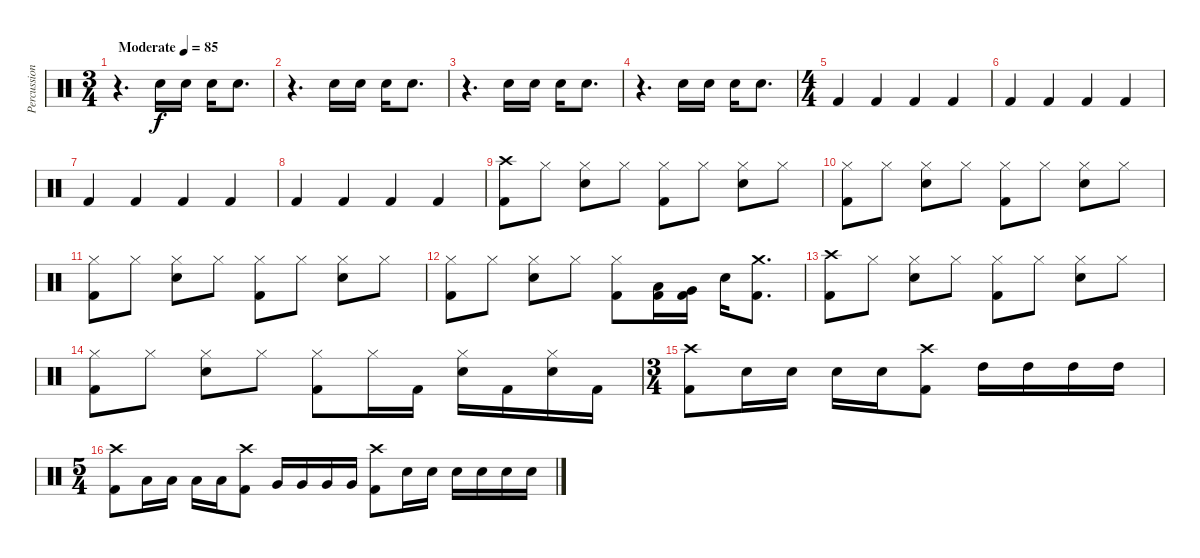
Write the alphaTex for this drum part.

\track ("Percussion" "Percussion") {instrument percussion}
\staff {score}
\articulation defaults
\ts (3 4)
\tempo (85 "Moderate")
\clef neutral
\ks c
r.4{d dy f} "Electric Snare (hit)".16 "Electric Snare (hit)".16 "Electric Snare (hit)".16 "Electric Snare (hit)".8{d} |
r.4{d} "Electric Snare (hit)".16 "Electric Snare (hit)".16 "Electric Snare (hit)".16 "Electric Snare (hit)".8{d} |
r.4{d} "Electric Snare (hit)".16 "Electric Snare (hit)".16 "Electric Snare (hit)".16 "Electric Snare (hit)".8{d} |
r.4{d} "Electric Snare (hit)".16 "Electric Snare (hit)".16 "Electric Snare (hit)".16 "Electric Snare (hit)".8{d} |
\ts (4 4)
"Kick (hit) 2".4 "Kick (hit) 2".4 "Kick (hit) 2".4 "Kick (hit) 2".4 |
"Kick (hit) 2".4 "Kick (hit) 2".4 "Kick (hit) 2".4 "Kick (hit) 2".4 |
"Kick (hit) 2".4 "Kick (hit) 2".4 "Kick (hit) 2".4 "Kick (hit) 2".4 |
"Kick (hit) 2".4 "Kick (hit) 2".4 "Kick (hit) 2".4 "Kick (hit) 2".4 |
("Crash high (hit)" "Kick (hit) 2").8 "Hi-Hat (closed)".8 ("Hi-Hat (closed)" "Electric Snare (hit)").8 "Hi-Hat (closed)".8 ("Hi-Hat (closed)" "Kick (hit) 2").8 "Hi-Hat (closed)".8 ("Hi-Hat (closed)" "Electric Snare (hit)").8 "Hi-Hat (closed)".8 |
("Hi-Hat (closed)" "Kick (hit) 2").8 "Hi-Hat (closed)".8 ("Hi-Hat (closed)" "Electric Snare (hit)").8 "Hi-Hat (closed)".8 ("Hi-Hat (closed)" "Kick (hit) 2").8 "Hi-Hat (closed)".8 ("Hi-Hat (closed)" "Electric Snare (hit)").8 "Hi-Hat (closed)".8 |
("Hi-Hat (closed)" "Kick (hit) 2").8 "Hi-Hat (closed)".8 ("Hi-Hat (closed)" "Electric Snare (hit)").8 "Hi-Hat (closed)".8 ("Hi-Hat (closed)" "Kick (hit) 2").8 "Hi-Hat (closed)".8 ("Hi-Hat (closed)" "Electric Snare (hit)").8 "Hi-Hat (closed)".8 |
("Hi-Hat (closed)" "Kick (hit) 2").8 "Hi-Hat (closed)".8 ("Hi-Hat (closed)" "Electric Snare (hit)").8 "Hi-Hat (closed)".8 ("Hi-Hat (closed)" "Kick (hit) 2").8 ("Low Tom (hit)" "Kick (hit) 2").16 ("Very Low Tom (hit)" "Kick (hit) 2").16 "Electric Snare (hit)".16 ("Crash medium (hit)" "Kick (hit) 2").8{d} |
("Crash high (hit)" "Kick (hit) 2").8 "Hi-Hat (closed)".8 ("Hi-Hat (closed)" "Electric Snare (hit)").8 "Hi-Hat (closed)".8 ("Hi-Hat (closed)" "Kick (hit) 2").8 "Hi-Hat (closed)".8 ("Hi-Hat (closed)" "Electric Snare (hit)").8 "Hi-Hat (closed)".8 |
("Hi-Hat (closed)" "Kick (hit) 2").8 "Hi-Hat (closed)".8 ("Hi-Hat (closed)" "Electric Snare (hit)").8 "Hi-Hat (closed)".8 ("Hi-Hat (closed)" "Kick (hit) 2").8 "Hi-Hat (closed)".16 "Kick (hit) 2".16 ("Hi-Hat (closed)" "Electric Snare (hit)").16 "Kick (hit) 2".16 ("Hi-Hat (closed)" "Electric Snare (hit)").16 "Kick (hit) 2".16 |
\ts (3 4)
("Crash high (hit)" "Kick (hit) 2").8 "Electric Snare (hit)".16 "Electric Snare (hit)".16 "Electric Snare (hit)".16 "Electric Snare (hit)".16 ("Crash high (hit)" "Kick (hit) 2").8 "High Tom (hit)".16 "High Tom (hit)".16 "High Tom (hit)".16 "High Tom (hit)".16 |
\ts (5 4)
("Crash high (hit)" "Kick (hit) 2").8 "Low Tom (hit)".16 "Low Tom (hit)".16 "Low Tom (hit)".16 "Low Tom (hit)".16 ("Crash high (hit)" "Kick (hit) 2").8 "Very Low Tom (hit)".16 "Very Low Tom (hit)".16 "Very Low Tom (hit)".16 "Very Low Tom (hit)".16 ("Crash high (hit)" "Kick (hit) 2").8 "Electric Snare (hit)".16 "Electric Snare (hit)".16 "Electric Snare (hit)".16 "Electric Snare (hit)".16 "Electric Snare (hit)".16 "Electric Snare (hit)".16
